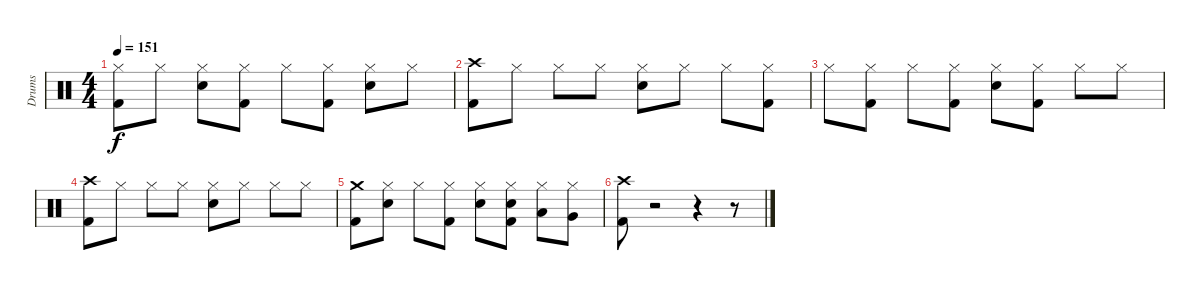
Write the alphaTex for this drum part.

\track ("Drums" "Drums") {instrument percussion}
\staff {score}
\articulation defaults
\ts (4 4)
\tempo 151
\clef neutral
\ks c
("Kick (hit) 2" "Hi-Hat (closed)").8{dy f} "Hi-Hat (closed)".8 ("Electric Snare (hit)" "Hi-Hat (closed)").8 ("Kick (hit) 2" "Hi-Hat (closed)").8 "Hi-Hat (closed)".8 ("Kick (hit) 2" "Hi-Hat (closed)").8 ("Electric Snare (hit)" "Hi-Hat (closed)").8 "Hi-Hat (closed)".8 |
("Crash high (hit)" "Kick (hit) 2").8 "Hi-Hat (closed)".8 "Hi-Hat (closed)".8 "Hi-Hat (closed)".8 ("Electric Snare (hit)" "Hi-Hat (closed)").8 "Hi-Hat (closed)".8 "Hi-Hat (closed)".8 ("Kick (hit) 2" "Hi-Hat (closed)").8 |
"Hi-Hat (closed)".8 ("Kick (hit) 2" "Hi-Hat (closed)").8 "Hi-Hat (closed)".8 ("Kick (hit) 2" "Hi-Hat (closed)").8 ("Electric Snare (hit)" "Hi-Hat (closed)").8 ("Kick (hit) 2" "Hi-Hat (closed)").8 "Hi-Hat (closed)".8 "Hi-Hat (closed)".8 |
("Crash high (hit)" "Kick (hit) 2").8 "Hi-Hat (closed)".8 "Hi-Hat (closed)".8 "Hi-Hat (closed)".8 ("Electric Snare (hit)" "Hi-Hat (closed)").8 "Hi-Hat (closed)".8 "Hi-Hat (closed)".8 "Hi-Hat (closed)".8 |
("Kick (hit) 2" "Crash medium (hit)").8 ("Electric Snare (hit)" "Hi-Hat (closed)").8 "Hi-Hat (closed)".8 ("Kick (hit) 2" "Hi-Hat (closed)").8 ("Electric Snare (hit)" "Hi-Hat (closed)").8 ("Electric Snare (hit)" "Kick (hit) 2" "Hi-Hat (closed)").8 ("Low Tom (hit)" "Hi-Hat (closed)").8 ("Very Low Tom (hit)" "Hi-Hat (closed)").8 |
("Crash high (hit)" "Kick (hit) 2").8 r.2 r.4 r.8
